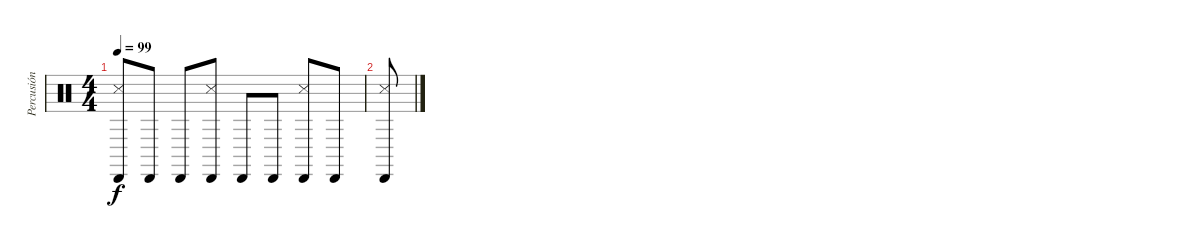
\track ("Percusión" "Percusión") {instrument percussion}
\staff {score}
\articulation defaults
\ts (4 4)
\tempo 99
\clef neutral
\ks c
("Cabasa (hit)" "Metronome (hit)").8{dy f} "Cabasa (hit)".8 "Cabasa (hit)".8 ("Cabasa (hit)" "Metronome (hit)").8 "Cabasa (hit)".8 "Cabasa (hit)".8 ("Cabasa (hit)" "Metronome (hit)").8 "Cabasa (hit)".8 |
("Cabasa (hit)" "Metronome (hit)").8
